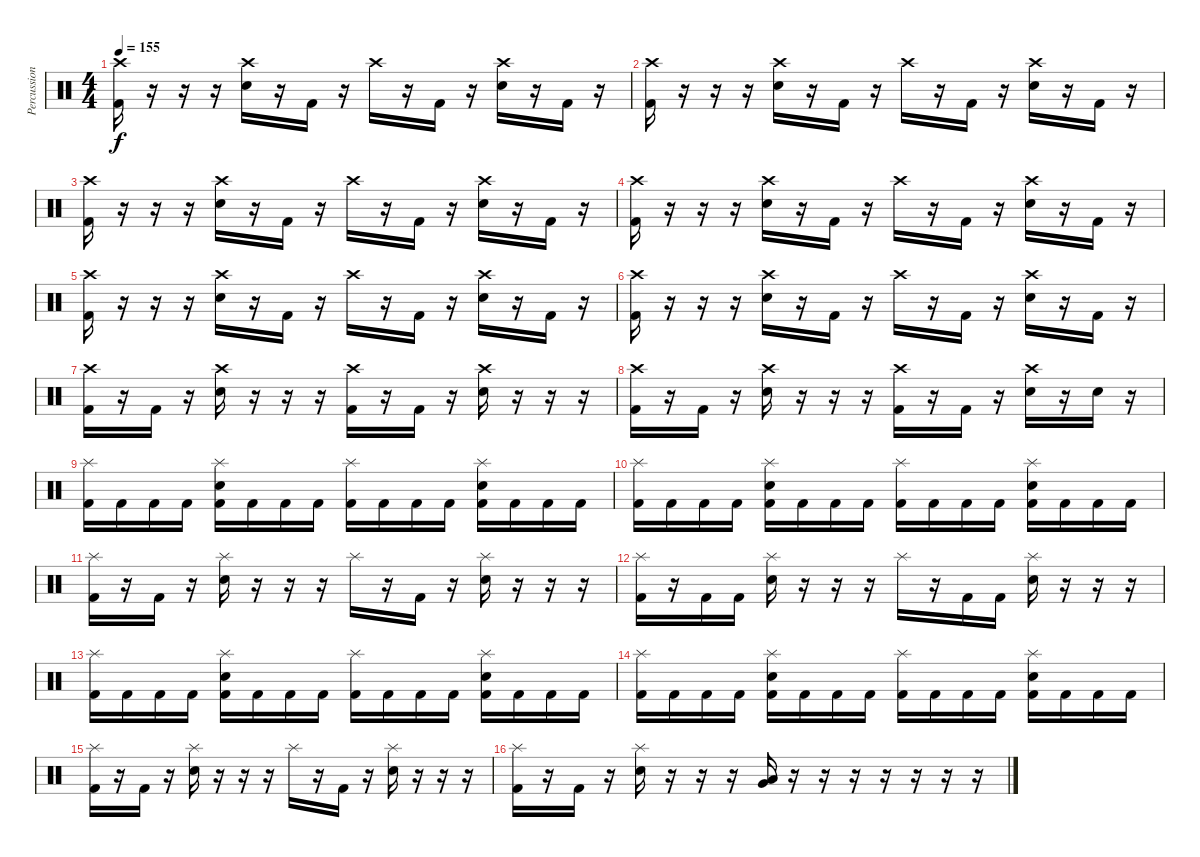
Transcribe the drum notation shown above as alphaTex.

\track ("Percussion" "Percussion") {instrument percussion}
\staff {score}
\articulation defaults
\ts (4 4)
\tempo 155
\clef neutral
\ks c
("Crash high (hit)" "Kick (hit) 2").16{dy f} r.16 r.16 r.16 ("Crash high (hit)" "Snare (hit) 2").16 r.16 "Kick (hit) 2".16 r.16 "Crash high (hit)".16 r.16 "Kick (hit) 2".16 r.16 ("Crash high (hit)" "Snare (hit) 2").16 r.16 "Kick (hit) 2".16 r.16 |
("Crash high (hit)" "Kick (hit) 2").16 r.16 r.16 r.16 ("Crash high (hit)" "Snare (hit) 2").16 r.16 "Kick (hit) 2".16 r.16 "Crash high (hit)".16 r.16 "Kick (hit) 2".16 r.16 ("Crash high (hit)" "Snare (hit) 2").16 r.16 "Kick (hit) 2".16 r.16 |
("Crash high (hit)" "Kick (hit) 2").16 r.16 r.16 r.16 ("Crash high (hit)" "Snare (hit) 2").16 r.16 "Kick (hit) 2".16 r.16 "Crash high (hit)".16 r.16 "Kick (hit) 2".16 r.16 ("Crash high (hit)" "Snare (hit) 2").16 r.16 "Kick (hit) 2".16 r.16 |
("Crash high (hit)" "Kick (hit) 2").16 r.16 r.16 r.16 ("Crash high (hit)" "Snare (hit) 2").16 r.16 "Kick (hit) 2".16 r.16 "Crash high (hit)".16 r.16 "Kick (hit) 2".16 r.16 ("Crash high (hit)" "Snare (hit) 2").16 r.16 "Kick (hit) 2".16 r.16 |
("Crash high (hit)" "Kick (hit) 2").16 r.16 r.16 r.16 ("Crash high (hit)" "Snare (hit) 2").16 r.16 "Kick (hit) 2".16 r.16 "Crash high (hit)".16 r.16 "Kick (hit) 2".16 r.16 ("Crash high (hit)" "Snare (hit) 2").16 r.16 "Kick (hit) 2".16 r.16 |
("Crash high (hit)" "Kick (hit) 2").16 r.16 r.16 r.16 ("Crash high (hit)" "Snare (hit) 2").16 r.16 "Kick (hit) 2".16 r.16 "Crash high (hit)".16 r.16 "Kick (hit) 2".16 r.16 ("Crash high (hit)" "Snare (hit) 2").16 r.16 "Kick (hit) 2".16 r.16 |
("Crash high (hit)" "Kick (hit) 2").16 r.16 "Kick (hit) 2".16 r.16 ("Crash high (hit)" "Snare (hit) 2").16 r.16 r.16 r.16 ("Crash high (hit)" "Kick (hit) 2").16 r.16 "Kick (hit) 2".16 r.16 ("Crash high (hit)" "Snare (hit) 2").16 r.16 r.16 r.16 |
("Crash high (hit)" "Kick (hit) 2").16 r.16 "Kick (hit) 2".16 r.16 ("Crash high (hit)" "Snare (hit) 2").16 r.16 r.16 r.16 ("Crash high (hit)" "Kick (hit) 2").16 r.16 "Kick (hit) 2".16 r.16 ("Crash high (hit)" "Snare (hit) 2").16 r.16 "Snare (hit) 2".16 r.16 |
("Splash (hit)" "Kick (hit) 2").16 "Kick (hit) 2".16 "Kick (hit) 2".16 "Kick (hit) 2".16 ("Splash (hit)" "Snare (hit) 2" "Kick (hit) 2").16 "Kick (hit) 2".16 "Kick (hit) 2".16 "Kick (hit) 2".16 ("Splash (hit)" "Kick (hit) 2").16 "Kick (hit) 2".16 "Kick (hit) 2".16 "Kick (hit) 2".16 ("Splash (hit)" "Snare (hit) 2" "Kick (hit) 2").16 "Kick (hit) 2".16 "Kick (hit) 2".16 "Kick (hit) 2".16 |
("Splash (hit)" "Kick (hit) 2").16 "Kick (hit) 2".16 "Kick (hit) 2".16 "Kick (hit) 2".16 ("Splash (hit)" "Snare (hit) 2" "Kick (hit) 2").16 "Kick (hit) 2".16 "Kick (hit) 2".16 "Kick (hit) 2".16 ("Splash (hit)" "Kick (hit) 2").16 "Kick (hit) 2".16 "Kick (hit) 2".16 "Kick (hit) 2".16 ("Splash (hit)" "Snare (hit) 2" "Kick (hit) 2").16 "Kick (hit) 2".16 "Kick (hit) 2".16 "Kick (hit) 2".16 |
("Splash (hit)" "Kick (hit) 2").16 r.16 "Kick (hit) 2".16 r.16 ("Splash (hit)" "Snare (hit) 2").16 r.16 r.16 r.16 "Splash (hit)".16 r.16 "Kick (hit) 2".16 r.16 ("Splash (hit)" "Snare (hit) 2").16 r.16 r.16 r.16 |
("Splash (hit)" "Kick (hit) 2").16 r.16 "Kick (hit) 2".16 "Kick (hit) 2".16 ("Splash (hit)" "Snare (hit) 2").16 r.16 r.16 r.16 "Splash (hit)".16 r.16 "Kick (hit) 2".16 "Kick (hit) 2".16 ("Splash (hit)" "Snare (hit) 2").16 r.16 r.16 r.16 |
("Splash (hit)" "Kick (hit) 2").16 "Kick (hit) 2".16 "Kick (hit) 2".16 "Kick (hit) 2".16 ("Splash (hit)" "Snare (hit) 2" "Kick (hit) 2").16 "Kick (hit) 2".16 "Kick (hit) 2".16 "Kick (hit) 2".16 ("Splash (hit)" "Kick (hit) 2").16 "Kick (hit) 2".16 "Kick (hit) 2".16 "Kick (hit) 2".16 ("Splash (hit)" "Snare (hit) 2" "Kick (hit) 2").16 "Kick (hit) 2".16 "Kick (hit) 2".16 "Kick (hit) 2".16 |
("Splash (hit)" "Kick (hit) 2").16 "Kick (hit) 2".16 "Kick (hit) 2".16 "Kick (hit) 2".16 ("Splash (hit)" "Snare (hit) 2" "Kick (hit) 2").16 "Kick (hit) 2".16 "Kick (hit) 2".16 "Kick (hit) 2".16 ("Splash (hit)" "Kick (hit) 2").16 "Kick (hit) 2".16 "Kick (hit) 2".16 "Kick (hit) 2".16 ("Splash (hit)" "Snare (hit) 2" "Kick (hit) 2").16 "Kick (hit) 2".16 "Kick (hit) 2".16 "Kick (hit) 2".16 |
("Splash (hit)" "Kick (hit) 2").16 r.16 "Kick (hit) 2".16 r.16 ("Splash (hit)" "Snare (hit) 2").16 r.16 r.16 r.16 "Splash (hit)".16 r.16 "Kick (hit) 2".16 r.16 ("Splash (hit)" "Snare (hit) 2").16 r.16 r.16 r.16 |
("Splash (hit)" "Kick (hit) 2").16 r.16 "Kick (hit) 2".16 r.16 ("Splash (hit)" "Snare (hit) 2").16 r.16 r.16 r.16 ("Very Low Tom (hit)" "Low Tom (hit)").16 r.16 r.16 r.16 r.16 r.16 r.16 r.16
